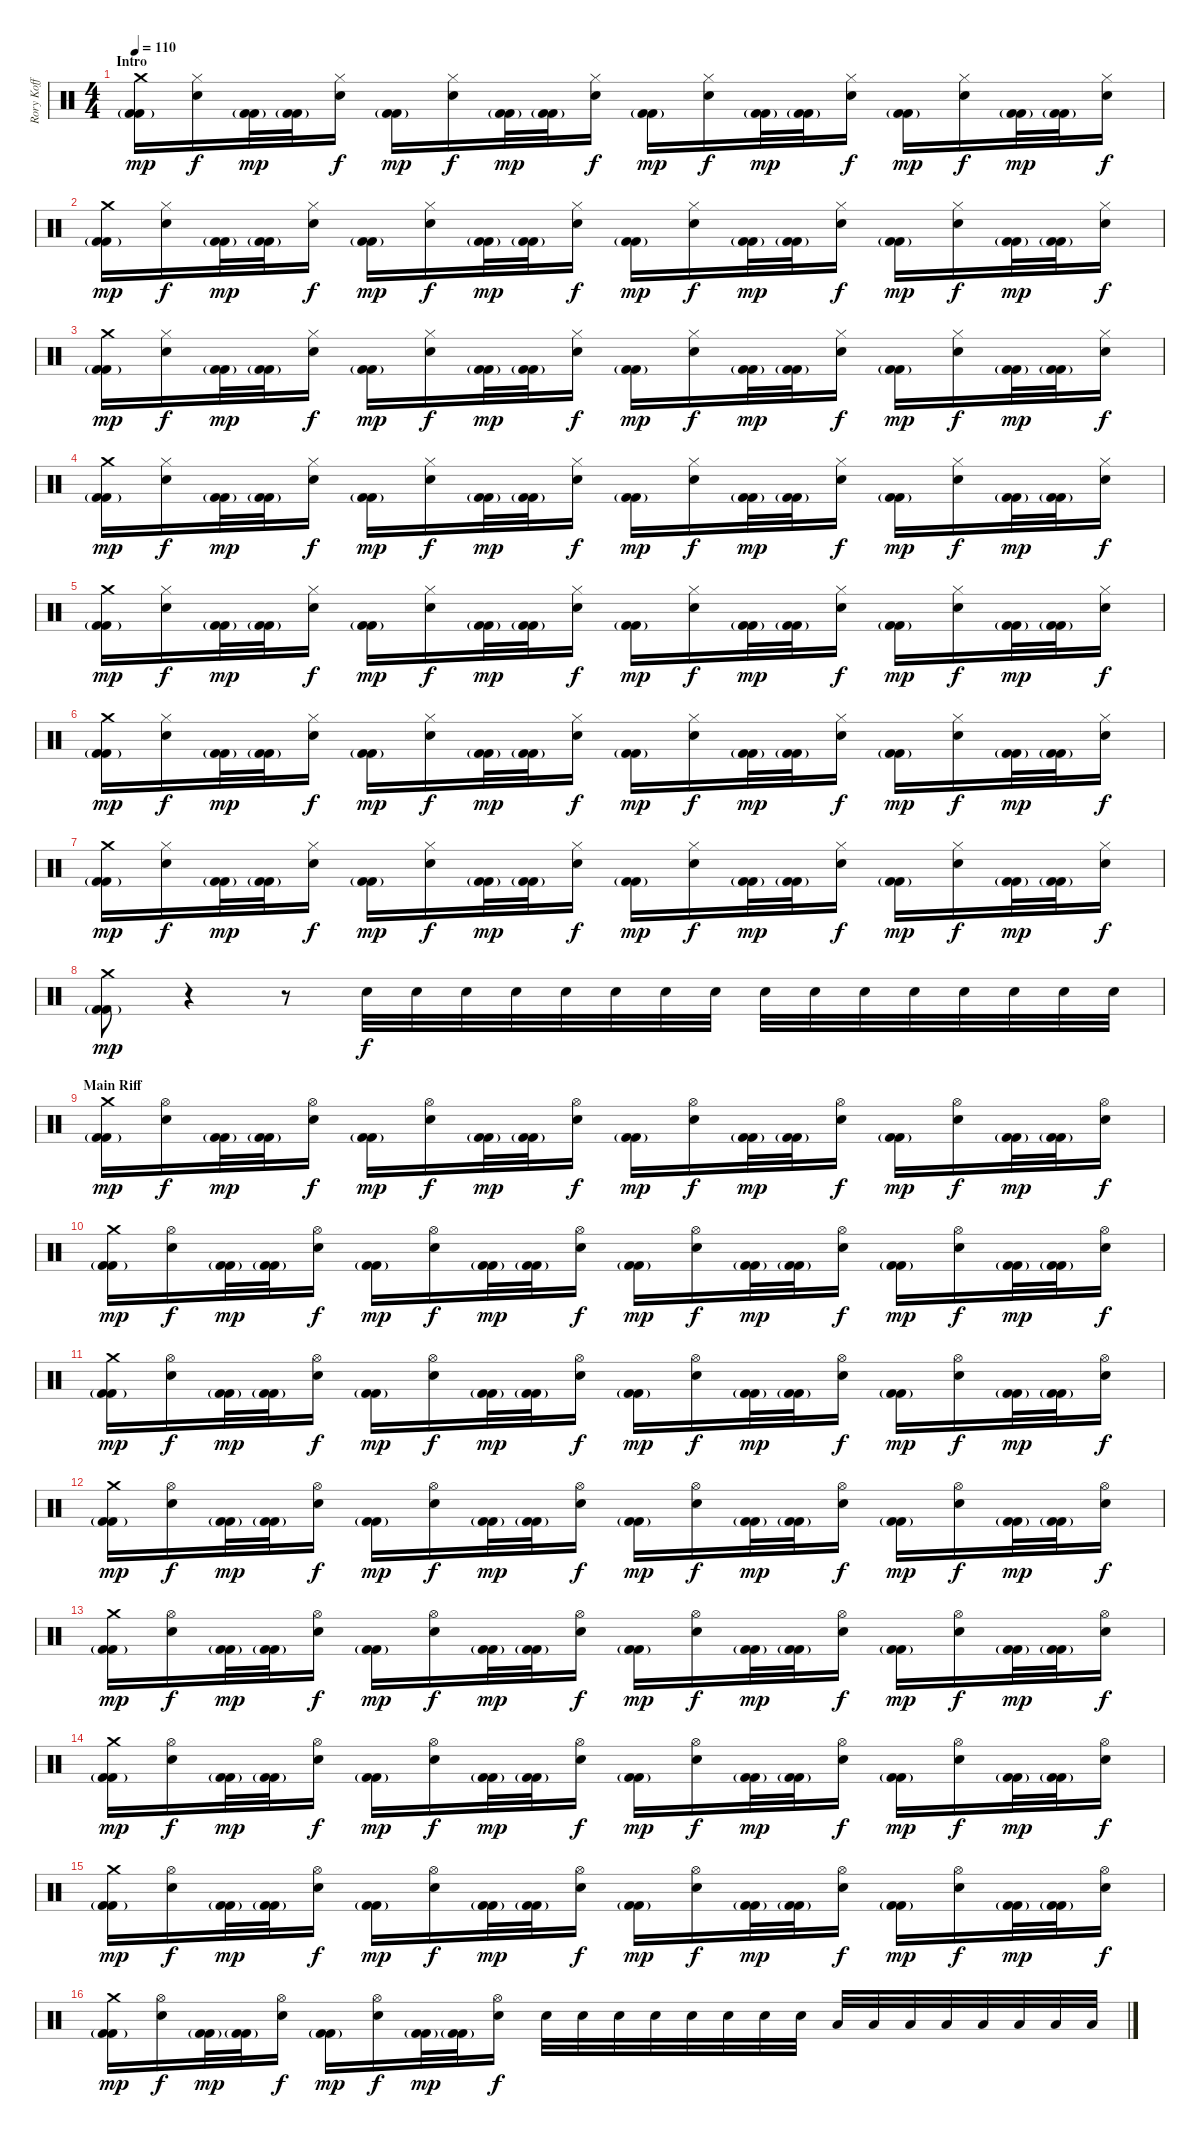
\track ("Rory Koff" "Rory Koff") {instrument percussion}
\staff {score}
\articulation defaults
\ts (4 4)
\section ("" "Intro")
\tempo 110
\clef neutral
\ks c
("Crash medium (hit)" "Kick (hit) 2"{g} "Kick (hit) 2").16{dy mp} ("Hi-Hat (closed)" "Snare (hit) 2").16{dy f} ("Kick (hit) 2"{g} "Kick (hit) 2").32{dy mp} ("Kick (hit) 2"{g} "Kick (hit) 2").32 ("Hi-Hat (closed)" "Snare (hit) 2").16{dy f} ("Kick (hit) 2"{g} "Kick (hit) 2").16{dy mp} ("Hi-Hat (closed)" "Snare (hit) 2").16{dy f} ("Kick (hit) 2"{g} "Kick (hit) 2").32{dy mp} ("Kick (hit) 2"{g} "Kick (hit) 2").32 ("Hi-Hat (closed)" "Snare (hit) 2").16{dy f} ("Kick (hit) 2"{g} "Kick (hit) 2").16{dy mp} ("Hi-Hat (closed)" "Snare (hit) 2").16{dy f} ("Kick (hit) 2"{g} "Kick (hit) 2").32{dy mp} ("Kick (hit) 2"{g} "Kick (hit) 2").32 ("Hi-Hat (closed)" "Snare (hit) 2").16{dy f} ("Kick (hit) 2"{g} "Kick (hit) 2").16{dy mp} ("Hi-Hat (closed)" "Snare (hit) 2").16{dy f} ("Kick (hit) 2"{g} "Kick (hit) 2").32{dy mp} ("Kick (hit) 2"{g} "Kick (hit) 2").32 ("Hi-Hat (closed)" "Snare (hit) 2").16{dy f} |
("Crash medium (hit)" "Kick (hit) 2"{g} "Kick (hit) 2").16{dy mp} ("Hi-Hat (closed)" "Snare (hit) 2").16{dy f} ("Kick (hit) 2"{g} "Kick (hit) 2").32{dy mp} ("Kick (hit) 2"{g} "Kick (hit) 2").32 ("Hi-Hat (closed)" "Snare (hit) 2").16{dy f} ("Kick (hit) 2"{g} "Kick (hit) 2").16{dy mp} ("Hi-Hat (closed)" "Snare (hit) 2").16{dy f} ("Kick (hit) 2"{g} "Kick (hit) 2").32{dy mp} ("Kick (hit) 2"{g} "Kick (hit) 2").32 ("Hi-Hat (closed)" "Snare (hit) 2").16{dy f} ("Kick (hit) 2"{g} "Kick (hit) 2").16{dy mp} ("Hi-Hat (closed)" "Snare (hit) 2").16{dy f} ("Kick (hit) 2"{g} "Kick (hit) 2").32{dy mp} ("Kick (hit) 2"{g} "Kick (hit) 2").32 ("Hi-Hat (closed)" "Snare (hit) 2").16{dy f} ("Kick (hit) 2"{g} "Kick (hit) 2").16{dy mp} ("Hi-Hat (closed)" "Snare (hit) 2").16{dy f} ("Kick (hit) 2"{g} "Kick (hit) 2").32{dy mp} ("Kick (hit) 2"{g} "Kick (hit) 2").32 ("Hi-Hat (closed)" "Snare (hit) 2").16{dy f} |
("Crash medium (hit)" "Kick (hit) 2"{g} "Kick (hit) 2").16{dy mp} ("Hi-Hat (closed)" "Snare (hit) 2").16{dy f} ("Kick (hit) 2"{g} "Kick (hit) 2").32{dy mp} ("Kick (hit) 2"{g} "Kick (hit) 2").32 ("Hi-Hat (closed)" "Snare (hit) 2").16{dy f} ("Kick (hit) 2"{g} "Kick (hit) 2").16{dy mp} ("Hi-Hat (closed)" "Snare (hit) 2").16{dy f} ("Kick (hit) 2"{g} "Kick (hit) 2").32{dy mp} ("Kick (hit) 2"{g} "Kick (hit) 2").32 ("Hi-Hat (closed)" "Snare (hit) 2").16{dy f} ("Kick (hit) 2"{g} "Kick (hit) 2").16{dy mp} ("Hi-Hat (closed)" "Snare (hit) 2").16{dy f} ("Kick (hit) 2"{g} "Kick (hit) 2").32{dy mp} ("Kick (hit) 2"{g} "Kick (hit) 2").32 ("Hi-Hat (closed)" "Snare (hit) 2").16{dy f} ("Kick (hit) 2"{g} "Kick (hit) 2").16{dy mp} ("Hi-Hat (closed)" "Snare (hit) 2").16{dy f} ("Kick (hit) 2"{g} "Kick (hit) 2").32{dy mp} ("Kick (hit) 2"{g} "Kick (hit) 2").32 ("Hi-Hat (closed)" "Snare (hit) 2").16{dy f} |
("Crash medium (hit)" "Kick (hit) 2"{g} "Kick (hit) 2").16{dy mp} ("Hi-Hat (closed)" "Snare (hit) 2").16{dy f} ("Kick (hit) 2"{g} "Kick (hit) 2").32{dy mp} ("Kick (hit) 2"{g} "Kick (hit) 2").32 ("Hi-Hat (closed)" "Snare (hit) 2").16{dy f} ("Kick (hit) 2"{g} "Kick (hit) 2").16{dy mp} ("Hi-Hat (closed)" "Snare (hit) 2").16{dy f} ("Kick (hit) 2"{g} "Kick (hit) 2").32{dy mp} ("Kick (hit) 2"{g} "Kick (hit) 2").32 ("Hi-Hat (closed)" "Snare (hit) 2").16{dy f} ("Kick (hit) 2"{g} "Kick (hit) 2").16{dy mp} ("Hi-Hat (closed)" "Snare (hit) 2").16{dy f} ("Kick (hit) 2"{g} "Kick (hit) 2").32{dy mp} ("Kick (hit) 2"{g} "Kick (hit) 2").32 ("Hi-Hat (closed)" "Snare (hit) 2").16{dy f} ("Kick (hit) 2"{g} "Kick (hit) 2").16{dy mp} ("Hi-Hat (closed)" "Snare (hit) 2").16{dy f} ("Kick (hit) 2"{g} "Kick (hit) 2").32{dy mp} ("Kick (hit) 2"{g} "Kick (hit) 2").32 ("Hi-Hat (closed)" "Snare (hit) 2").16{dy f} |
("Crash medium (hit)" "Kick (hit) 2"{g} "Kick (hit) 2").16{dy mp} ("Hi-Hat (closed)" "Snare (hit) 2").16{dy f} ("Kick (hit) 2"{g} "Kick (hit) 2").32{dy mp} ("Kick (hit) 2"{g} "Kick (hit) 2").32 ("Hi-Hat (closed)" "Snare (hit) 2").16{dy f} ("Kick (hit) 2"{g} "Kick (hit) 2").16{dy mp} ("Hi-Hat (closed)" "Snare (hit) 2").16{dy f} ("Kick (hit) 2"{g} "Kick (hit) 2").32{dy mp} ("Kick (hit) 2"{g} "Kick (hit) 2").32 ("Hi-Hat (closed)" "Snare (hit) 2").16{dy f} ("Kick (hit) 2"{g} "Kick (hit) 2").16{dy mp} ("Hi-Hat (closed)" "Snare (hit) 2").16{dy f} ("Kick (hit) 2"{g} "Kick (hit) 2").32{dy mp} ("Kick (hit) 2"{g} "Kick (hit) 2").32 ("Hi-Hat (closed)" "Snare (hit) 2").16{dy f} ("Kick (hit) 2"{g} "Kick (hit) 2").16{dy mp} ("Hi-Hat (closed)" "Snare (hit) 2").16{dy f} ("Kick (hit) 2"{g} "Kick (hit) 2").32{dy mp} ("Kick (hit) 2"{g} "Kick (hit) 2").32 ("Hi-Hat (closed)" "Snare (hit) 2").16{dy f} |
("Crash medium (hit)" "Kick (hit) 2"{g} "Kick (hit) 2").16{dy mp} ("Hi-Hat (closed)" "Snare (hit) 2").16{dy f} ("Kick (hit) 2"{g} "Kick (hit) 2").32{dy mp} ("Kick (hit) 2"{g} "Kick (hit) 2").32 ("Hi-Hat (closed)" "Snare (hit) 2").16{dy f} ("Kick (hit) 2"{g} "Kick (hit) 2").16{dy mp} ("Hi-Hat (closed)" "Snare (hit) 2").16{dy f} ("Kick (hit) 2"{g} "Kick (hit) 2").32{dy mp} ("Kick (hit) 2"{g} "Kick (hit) 2").32 ("Hi-Hat (closed)" "Snare (hit) 2").16{dy f} ("Kick (hit) 2"{g} "Kick (hit) 2").16{dy mp} ("Hi-Hat (closed)" "Snare (hit) 2").16{dy f} ("Kick (hit) 2"{g} "Kick (hit) 2").32{dy mp} ("Kick (hit) 2"{g} "Kick (hit) 2").32 ("Hi-Hat (closed)" "Snare (hit) 2").16{dy f} ("Kick (hit) 2"{g} "Kick (hit) 2").16{dy mp} ("Hi-Hat (closed)" "Snare (hit) 2").16{dy f} ("Kick (hit) 2"{g} "Kick (hit) 2").32{dy mp} ("Kick (hit) 2"{g} "Kick (hit) 2").32 ("Hi-Hat (closed)" "Snare (hit) 2").16{dy f} |
("Crash medium (hit)" "Kick (hit) 2"{g} "Kick (hit) 2").16{dy mp} ("Hi-Hat (closed)" "Snare (hit) 2").16{dy f} ("Kick (hit) 2"{g} "Kick (hit) 2").32{dy mp} ("Kick (hit) 2"{g} "Kick (hit) 2").32 ("Hi-Hat (closed)" "Snare (hit) 2").16{dy f} ("Kick (hit) 2"{g} "Kick (hit) 2").16{dy mp} ("Hi-Hat (closed)" "Snare (hit) 2").16{dy f} ("Kick (hit) 2"{g} "Kick (hit) 2").32{dy mp} ("Kick (hit) 2"{g} "Kick (hit) 2").32 ("Hi-Hat (closed)" "Snare (hit) 2").16{dy f} ("Kick (hit) 2"{g} "Kick (hit) 2").16{dy mp} ("Hi-Hat (closed)" "Snare (hit) 2").16{dy f} ("Kick (hit) 2"{g} "Kick (hit) 2").32{dy mp} ("Kick (hit) 2"{g} "Kick (hit) 2").32 ("Hi-Hat (closed)" "Snare (hit) 2").16{dy f} ("Kick (hit) 2"{g} "Kick (hit) 2").16{dy mp} ("Hi-Hat (closed)" "Snare (hit) 2").16{dy f} ("Kick (hit) 2"{g} "Kick (hit) 2").32{dy mp} ("Kick (hit) 2"{g} "Kick (hit) 2").32 ("Hi-Hat (closed)" "Snare (hit) 2").16{dy f} |
("Crash medium (hit)" "Kick (hit) 2"{g} "Kick (hit) 2").8{dy mp} r.4 r.8 "Snare (hit) 2".32{dy f} "Snare (hit) 2".32 "Snare (hit) 2".32 "Snare (hit) 2".32 "Snare (hit) 2".32 "Snare (hit) 2".32 "Snare (hit) 2".32 "Snare (hit) 2".32 "Snare (hit) 2".32 "Snare (hit) 2".32 "Snare (hit) 2".32 "Snare (hit) 2".32 "Snare (hit) 2".32 "Snare (hit) 2".32 "Snare (hit) 2".32 "Snare (hit) 2".32 |
\section ("" "Main Riff")
("Crash medium (hit)" "Kick (hit) 2"{g} "Kick (hit) 2").16{dy mp} ("Hi-Hat (open)" "Snare (hit) 2").16{dy f} ("Kick (hit) 2"{g} "Kick (hit) 2").32{dy mp} ("Kick (hit) 2"{g} "Kick (hit) 2").32 ("Hi-Hat (open)" "Snare (hit) 2").16{dy f} ("Kick (hit) 2"{g} "Kick (hit) 2").16{dy mp} ("Hi-Hat (open)" "Snare (hit) 2").16{dy f} ("Kick (hit) 2"{g} "Kick (hit) 2").32{dy mp} ("Kick (hit) 2"{g} "Kick (hit) 2").32 ("Hi-Hat (open)" "Snare (hit) 2").16{dy f} ("Kick (hit) 2"{g} "Kick (hit) 2").16{dy mp} ("Hi-Hat (open)" "Snare (hit) 2").16{dy f} ("Kick (hit) 2"{g} "Kick (hit) 2").32{dy mp} ("Kick (hit) 2"{g} "Kick (hit) 2").32 ("Hi-Hat (open)" "Snare (hit) 2").16{dy f} ("Kick (hit) 2"{g} "Kick (hit) 2").16{dy mp} ("Hi-Hat (open)" "Snare (hit) 2").16{dy f} ("Kick (hit) 2"{g} "Kick (hit) 2").32{dy mp} ("Kick (hit) 2"{g} "Kick (hit) 2").32 ("Hi-Hat (open)" "Snare (hit) 2").16{dy f} |
("Crash medium (hit)" "Kick (hit) 2"{g} "Kick (hit) 2").16{dy mp} ("Hi-Hat (open)" "Snare (hit) 2").16{dy f} ("Kick (hit) 2"{g} "Kick (hit) 2").32{dy mp} ("Kick (hit) 2"{g} "Kick (hit) 2").32 ("Hi-Hat (open)" "Snare (hit) 2").16{dy f} ("Kick (hit) 2"{g} "Kick (hit) 2").16{dy mp} ("Hi-Hat (open)" "Snare (hit) 2").16{dy f} ("Kick (hit) 2"{g} "Kick (hit) 2").32{dy mp} ("Kick (hit) 2"{g} "Kick (hit) 2").32 ("Hi-Hat (open)" "Snare (hit) 2").16{dy f} ("Kick (hit) 2"{g} "Kick (hit) 2").16{dy mp} ("Hi-Hat (open)" "Snare (hit) 2").16{dy f} ("Kick (hit) 2"{g} "Kick (hit) 2").32{dy mp} ("Kick (hit) 2"{g} "Kick (hit) 2").32 ("Hi-Hat (open)" "Snare (hit) 2").16{dy f} ("Kick (hit) 2"{g} "Kick (hit) 2").16{dy mp} ("Hi-Hat (open)" "Snare (hit) 2").16{dy f} ("Kick (hit) 2"{g} "Kick (hit) 2").32{dy mp} ("Kick (hit) 2"{g} "Kick (hit) 2").32 ("Hi-Hat (open)" "Snare (hit) 2").16{dy f} |
("Crash medium (hit)" "Kick (hit) 2"{g} "Kick (hit) 2").16{dy mp} ("Hi-Hat (open)" "Snare (hit) 2").16{dy f} ("Kick (hit) 2"{g} "Kick (hit) 2").32{dy mp} ("Kick (hit) 2"{g} "Kick (hit) 2").32 ("Hi-Hat (open)" "Snare (hit) 2").16{dy f} ("Kick (hit) 2"{g} "Kick (hit) 2").16{dy mp} ("Hi-Hat (open)" "Snare (hit) 2").16{dy f} ("Kick (hit) 2"{g} "Kick (hit) 2").32{dy mp} ("Kick (hit) 2"{g} "Kick (hit) 2").32 ("Hi-Hat (open)" "Snare (hit) 2").16{dy f} ("Kick (hit) 2"{g} "Kick (hit) 2").16{dy mp} ("Hi-Hat (open)" "Snare (hit) 2").16{dy f} ("Kick (hit) 2"{g} "Kick (hit) 2").32{dy mp} ("Kick (hit) 2"{g} "Kick (hit) 2").32 ("Hi-Hat (open)" "Snare (hit) 2").16{dy f} ("Kick (hit) 2"{g} "Kick (hit) 2").16{dy mp} ("Hi-Hat (open)" "Snare (hit) 2").16{dy f} ("Kick (hit) 2"{g} "Kick (hit) 2").32{dy mp} ("Kick (hit) 2"{g} "Kick (hit) 2").32 ("Hi-Hat (open)" "Snare (hit) 2").16{dy f} |
("Crash medium (hit)" "Kick (hit) 2"{g} "Kick (hit) 2").16{dy mp} ("Hi-Hat (open)" "Snare (hit) 2").16{dy f} ("Kick (hit) 2"{g} "Kick (hit) 2").32{dy mp} ("Kick (hit) 2"{g} "Kick (hit) 2").32 ("Hi-Hat (open)" "Snare (hit) 2").16{dy f} ("Kick (hit) 2"{g} "Kick (hit) 2").16{dy mp} ("Hi-Hat (open)" "Snare (hit) 2").16{dy f} ("Kick (hit) 2"{g} "Kick (hit) 2").32{dy mp} ("Kick (hit) 2"{g} "Kick (hit) 2").32 ("Hi-Hat (open)" "Snare (hit) 2").16{dy f} ("Kick (hit) 2"{g} "Kick (hit) 2").16{dy mp} ("Hi-Hat (open)" "Snare (hit) 2").16{dy f} ("Kick (hit) 2"{g} "Kick (hit) 2").32{dy mp} ("Kick (hit) 2"{g} "Kick (hit) 2").32 ("Hi-Hat (open)" "Snare (hit) 2").16{dy f} ("Kick (hit) 2"{g} "Kick (hit) 2").16{dy mp} ("Hi-Hat (open)" "Snare (hit) 2").16{dy f} ("Kick (hit) 2"{g} "Kick (hit) 2").32{dy mp} ("Kick (hit) 2"{g} "Kick (hit) 2").32 ("Hi-Hat (open)" "Snare (hit) 2").16{dy f} |
("Crash medium (hit)" "Kick (hit) 2"{g} "Kick (hit) 2").16{dy mp} ("Hi-Hat (open)" "Snare (hit) 2").16{dy f} ("Kick (hit) 2"{g} "Kick (hit) 2").32{dy mp} ("Kick (hit) 2"{g} "Kick (hit) 2").32 ("Hi-Hat (open)" "Snare (hit) 2").16{dy f} ("Kick (hit) 2"{g} "Kick (hit) 2").16{dy mp} ("Hi-Hat (open)" "Snare (hit) 2").16{dy f} ("Kick (hit) 2"{g} "Kick (hit) 2").32{dy mp} ("Kick (hit) 2"{g} "Kick (hit) 2").32 ("Hi-Hat (open)" "Snare (hit) 2").16{dy f} ("Kick (hit) 2"{g} "Kick (hit) 2").16{dy mp} ("Hi-Hat (open)" "Snare (hit) 2").16{dy f} ("Kick (hit) 2"{g} "Kick (hit) 2").32{dy mp} ("Kick (hit) 2"{g} "Kick (hit) 2").32 ("Hi-Hat (open)" "Snare (hit) 2").16{dy f} ("Kick (hit) 2"{g} "Kick (hit) 2").16{dy mp} ("Hi-Hat (open)" "Snare (hit) 2").16{dy f} ("Kick (hit) 2"{g} "Kick (hit) 2").32{dy mp} ("Kick (hit) 2"{g} "Kick (hit) 2").32 ("Hi-Hat (open)" "Snare (hit) 2").16{dy f} |
("Crash medium (hit)" "Kick (hit) 2"{g} "Kick (hit) 2").16{dy mp} ("Hi-Hat (open)" "Snare (hit) 2").16{dy f} ("Kick (hit) 2"{g} "Kick (hit) 2").32{dy mp} ("Kick (hit) 2"{g} "Kick (hit) 2").32 ("Hi-Hat (open)" "Snare (hit) 2").16{dy f} ("Kick (hit) 2"{g} "Kick (hit) 2").16{dy mp} ("Hi-Hat (open)" "Snare (hit) 2").16{dy f} ("Kick (hit) 2"{g} "Kick (hit) 2").32{dy mp} ("Kick (hit) 2"{g} "Kick (hit) 2").32 ("Hi-Hat (open)" "Snare (hit) 2").16{dy f} ("Kick (hit) 2"{g} "Kick (hit) 2").16{dy mp} ("Hi-Hat (open)" "Snare (hit) 2").16{dy f} ("Kick (hit) 2"{g} "Kick (hit) 2").32{dy mp} ("Kick (hit) 2"{g} "Kick (hit) 2").32 ("Hi-Hat (open)" "Snare (hit) 2").16{dy f} ("Kick (hit) 2"{g} "Kick (hit) 2").16{dy mp} ("Hi-Hat (open)" "Snare (hit) 2").16{dy f} ("Kick (hit) 2"{g} "Kick (hit) 2").32{dy mp} ("Kick (hit) 2"{g} "Kick (hit) 2").32 ("Hi-Hat (open)" "Snare (hit) 2").16{dy f} |
("Crash medium (hit)" "Kick (hit) 2"{g} "Kick (hit) 2").16{dy mp} ("Hi-Hat (open)" "Snare (hit) 2").16{dy f} ("Kick (hit) 2"{g} "Kick (hit) 2").32{dy mp} ("Kick (hit) 2"{g} "Kick (hit) 2").32 ("Hi-Hat (open)" "Snare (hit) 2").16{dy f} ("Kick (hit) 2"{g} "Kick (hit) 2").16{dy mp} ("Hi-Hat (open)" "Snare (hit) 2").16{dy f} ("Kick (hit) 2"{g} "Kick (hit) 2").32{dy mp} ("Kick (hit) 2"{g} "Kick (hit) 2").32 ("Hi-Hat (open)" "Snare (hit) 2").16{dy f} ("Kick (hit) 2"{g} "Kick (hit) 2").16{dy mp} ("Hi-Hat (open)" "Snare (hit) 2").16{dy f} ("Kick (hit) 2"{g} "Kick (hit) 2").32{dy mp} ("Kick (hit) 2"{g} "Kick (hit) 2").32 ("Hi-Hat (open)" "Snare (hit) 2").16{dy f} ("Kick (hit) 2"{g} "Kick (hit) 2").16{dy mp} ("Hi-Hat (open)" "Snare (hit) 2").16{dy f} ("Kick (hit) 2"{g} "Kick (hit) 2").32{dy mp} ("Kick (hit) 2"{g} "Kick (hit) 2").32 ("Hi-Hat (open)" "Snare (hit) 2").16{dy f} |
("Crash medium (hit)" "Kick (hit) 2"{g} "Kick (hit) 2").16{dy mp} ("Hi-Hat (open)" "Snare (hit) 2").16{dy f} ("Kick (hit) 2"{g} "Kick (hit) 2").32{dy mp} ("Kick (hit) 2"{g} "Kick (hit) 2").32 ("Hi-Hat (open)" "Snare (hit) 2").16{dy f} ("Kick (hit) 2"{g} "Kick (hit) 2").16{dy mp} ("Hi-Hat (open)" "Snare (hit) 2").16{dy f} ("Kick (hit) 2"{g} "Kick (hit) 2").32{dy mp} ("Kick (hit) 2"{g} "Kick (hit) 2").32 ("Hi-Hat (open)" "Snare (hit) 2").16{dy f} "Snare (hit) 2".32 "Snare (hit) 2".32 "Snare (hit) 2".32 "Snare (hit) 2".32 "Snare (hit) 2".32 "Snare (hit) 2".32 "Snare (hit) 2".32 "Snare (hit) 2".32 "Low Tom (hit)".32 "Low Tom (hit)".32 "Low Tom (hit)".32 "Low Tom (hit)".32 "Low Tom (hit)".32 "Low Tom (hit)".32 "Low Tom (hit)".32 "Low Tom (hit)".32
